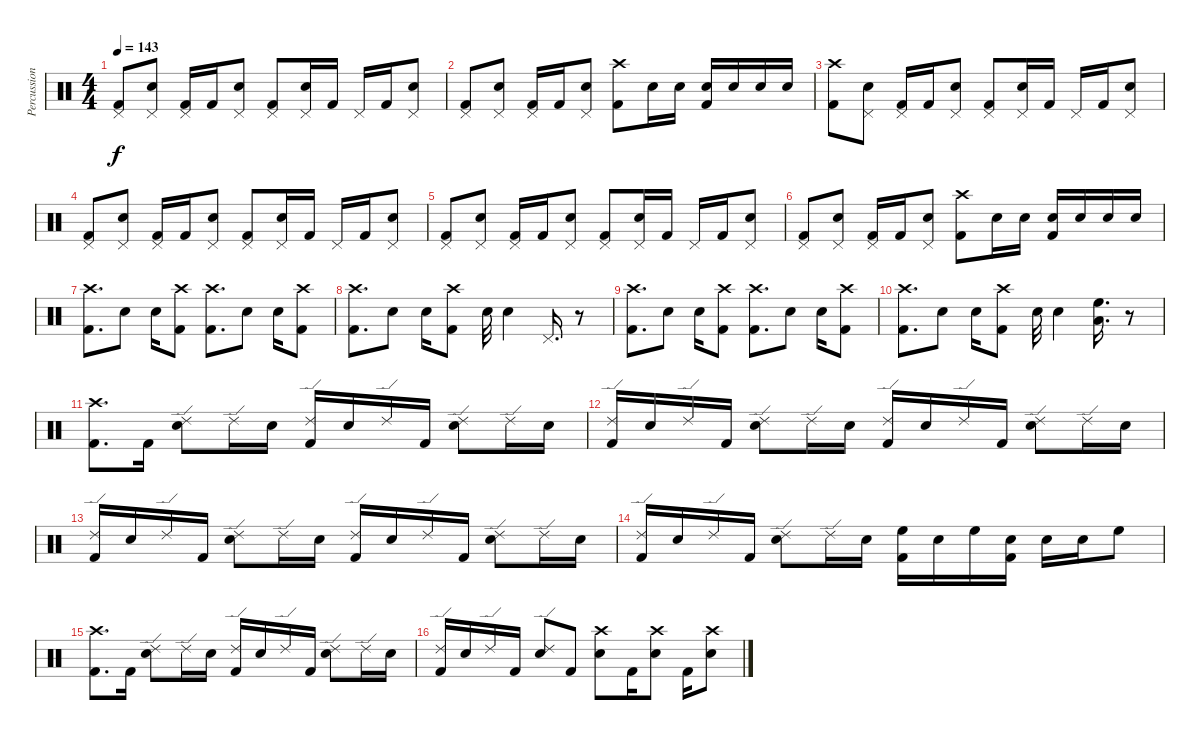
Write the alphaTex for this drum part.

\track ("Percussion" "Percussion") {instrument percussion}
\staff {score}
\articulation defaults
\ts (4 4)
\tempo 143
\clef neutral
\ks c
("Pedal Hi-Hat (hit)" "Kick (hit) 2").8{dy f} ("Pedal Hi-Hat (hit)" "Electric Snare (hit)").8 ("Pedal Hi-Hat (hit)" "Kick (hit) 2").16 "Kick (hit) 2".16 ("Pedal Hi-Hat (hit)" "Electric Snare (hit)").8 ("Pedal Hi-Hat (hit)" "Kick (hit) 2").8 ("Pedal Hi-Hat (hit)" "Electric Snare (hit)").16 "Kick (hit) 2".16 "Pedal Hi-Hat (hit)".16 "Kick (hit) 2".16 ("Pedal Hi-Hat (hit)" "Electric Snare (hit)").8 |
("Pedal Hi-Hat (hit)" "Kick (hit) 2").8 ("Pedal Hi-Hat (hit)" "Electric Snare (hit)").8 ("Pedal Hi-Hat (hit)" "Kick (hit) 2").16 "Kick (hit) 2".16 ("Pedal Hi-Hat (hit)" "Electric Snare (hit)").8 ("Crash high (hit)" "Kick (hit) 2").8 "Electric Snare (hit)".16 "Electric Snare (hit)".16 ("Electric Snare (hit)" "Kick (hit) 2").16 "Electric Snare (hit)".16 "Electric Snare (hit)".16 "Electric Snare (hit)".16 |
("Crash high (hit)" "Kick (hit) 2").8 ("Pedal Hi-Hat (hit)" "Electric Snare (hit)").8 ("Pedal Hi-Hat (hit)" "Kick (hit) 2").16 "Kick (hit) 2".16 ("Pedal Hi-Hat (hit)" "Electric Snare (hit)").8 ("Pedal Hi-Hat (hit)" "Kick (hit) 2").8 ("Pedal Hi-Hat (hit)" "Electric Snare (hit)").16 "Kick (hit) 2".16 "Pedal Hi-Hat (hit)".16 "Kick (hit) 2".16 ("Pedal Hi-Hat (hit)" "Electric Snare (hit)").8 |
("Pedal Hi-Hat (hit)" "Kick (hit) 2").8 ("Pedal Hi-Hat (hit)" "Electric Snare (hit)").8 ("Pedal Hi-Hat (hit)" "Kick (hit) 2").16 "Kick (hit) 2".16 ("Pedal Hi-Hat (hit)" "Electric Snare (hit)").8 ("Pedal Hi-Hat (hit)" "Kick (hit) 2").8 ("Pedal Hi-Hat (hit)" "Electric Snare (hit)").16 "Kick (hit) 2".16 "Pedal Hi-Hat (hit)".16 "Kick (hit) 2".16 ("Pedal Hi-Hat (hit)" "Electric Snare (hit)").8 |
("Pedal Hi-Hat (hit)" "Kick (hit) 2").8 ("Pedal Hi-Hat (hit)" "Electric Snare (hit)").8 ("Pedal Hi-Hat (hit)" "Kick (hit) 2").16 "Kick (hit) 2".16 ("Pedal Hi-Hat (hit)" "Electric Snare (hit)").8 ("Pedal Hi-Hat (hit)" "Kick (hit) 2").8 ("Pedal Hi-Hat (hit)" "Electric Snare (hit)").16 "Kick (hit) 2".16 "Pedal Hi-Hat (hit)".16 "Kick (hit) 2".16 ("Pedal Hi-Hat (hit)" "Electric Snare (hit)").8 |
("Pedal Hi-Hat (hit)" "Kick (hit) 2").8 ("Pedal Hi-Hat (hit)" "Electric Snare (hit)").8 ("Pedal Hi-Hat (hit)" "Kick (hit) 2").16 "Kick (hit) 2".16 ("Pedal Hi-Hat (hit)" "Electric Snare (hit)").8 ("Crash high (hit)" "Kick (hit) 2").8 "Electric Snare (hit)".16 "Electric Snare (hit)".16 ("Electric Snare (hit)" "Kick (hit) 2").16 "Electric Snare (hit)".16 "Electric Snare (hit)".16 "Electric Snare (hit)".16 |
("Crash high (hit)" "Kick (hit) 2").8{d} "Electric Snare (hit)".8 "Electric Snare (hit)".16 ("Crash high (hit)" "Kick (hit) 2").8 ("Crash high (hit)" "Kick (hit) 2").8{d} "Electric Snare (hit)".8 "Electric Snare (hit)".16 ("Crash high (hit)" "Kick (hit) 2").8 |
("Crash high (hit)" "Kick (hit) 2").8{d} "Electric Snare (hit)".8 "Electric Snare (hit)".16 ("Crash high (hit)" "Kick (hit) 2").8 "Electric Snare (hit)".32 "Electric Snare (hit)".4 "Pedal Hi-Hat (hit)".16{d} r.8 |
("Crash high (hit)" "Kick (hit) 2").8{d} "Electric Snare (hit)".8 "Electric Snare (hit)".16 ("Crash high (hit)" "Kick (hit) 2").8 ("Crash high (hit)" "Kick (hit) 2").8{d} "Electric Snare (hit)".8 "Electric Snare (hit)".16 ("Crash high (hit)" "Kick (hit) 2").8 |
("Crash high (hit)" "Kick (hit) 2").8{d} "Electric Snare (hit)".8 "Electric Snare (hit)".16 ("Crash high (hit)" "Kick (hit) 2").8 "Electric Snare (hit)".32 "Electric Snare (hit)".4 ("Low Tom (hit)" "High Floor Tom (hit)").16{d} r.8 |
("Crash high (hit)" "Kick (hit) 2").8{d} "Kick (hit) 2".16 ("Ride (edge) 2" "Electric Snare (hit)").8 "Ride (edge) 2".16 "Electric Snare (hit)".16 ("Ride (edge) 2" "Kick (hit) 2").16 "Electric Snare (hit)".16 "Ride (edge) 2".16 "Kick (hit) 2".16 ("Ride (edge) 2" "Electric Snare (hit)").8 "Ride (edge) 2".16 "Electric Snare (hit)".16 |
("Ride (edge) 2" "Kick (hit) 2").16 "Electric Snare (hit)".16 "Ride (edge) 2".16 "Kick (hit) 2".16 ("Ride (edge) 2" "Electric Snare (hit)").8 "Ride (edge) 2".16 "Electric Snare (hit)".16 ("Ride (edge) 2" "Kick (hit) 2").16 "Electric Snare (hit)".16 "Ride (edge) 2".16 "Kick (hit) 2".16 ("Ride (edge) 2" "Electric Snare (hit)").8 "Ride (edge) 2".16 "Electric Snare (hit)".16 |
("Ride (edge) 2" "Kick (hit) 2").16 "Electric Snare (hit)".16 "Ride (edge) 2".16 "Kick (hit) 2".16 ("Ride (edge) 2" "Electric Snare (hit)").8 "Ride (edge) 2".16 "Electric Snare (hit)".16 ("Ride (edge) 2" "Kick (hit) 2").16 "Electric Snare (hit)".16 "Ride (edge) 2".16 "Kick (hit) 2".16 ("Ride (edge) 2" "Electric Snare (hit)").8 "Ride (edge) 2".16 "Electric Snare (hit)".16 |
("Ride (edge) 2" "Kick (hit) 2").16 "Electric Snare (hit)".16 "Ride (edge) 2".16 "Kick (hit) 2".16 ("Ride (edge) 2" "Electric Snare (hit)").8 "Ride (edge) 2".16 "Electric Snare (hit)".16 ("High Floor Tom (hit)" "Kick (hit) 2").16 "Electric Snare (hit)".16 "High Floor Tom (hit)".16 ("Electric Snare (hit)" "Kick (hit) 2").16 "Electric Snare (hit)".16 "Electric Snare (hit)".16 "High Floor Tom (hit)".8 |
("Crash high (hit)" "Kick (hit) 2").8{d} "Kick (hit) 2".16 ("Ride (edge) 2" "Electric Snare (hit)").8 "Ride (edge) 2".16 "Electric Snare (hit)".16 ("Ride (edge) 2" "Kick (hit) 2").16 "Electric Snare (hit)".16 "Ride (edge) 2".16 "Kick (hit) 2".16 ("Ride (edge) 2" "Electric Snare (hit)").8 "Ride (edge) 2".16 "Electric Snare (hit)".16 |
("Ride (edge) 2" "Kick (hit) 2").16 "Electric Snare (hit)".16 "Ride (edge) 2".16 "Kick (hit) 2".16 ("Ride (edge) 2" "Electric Snare (hit)").8 "Kick (hit) 2".8 ("Crash high (hit)" "Electric Snare (hit)").8 "Kick (hit) 2".16 ("Crash high (hit)" "Electric Snare (hit)").8 "Kick (hit) 2".16 ("Crash high (hit)" "Electric Snare (hit)").8
